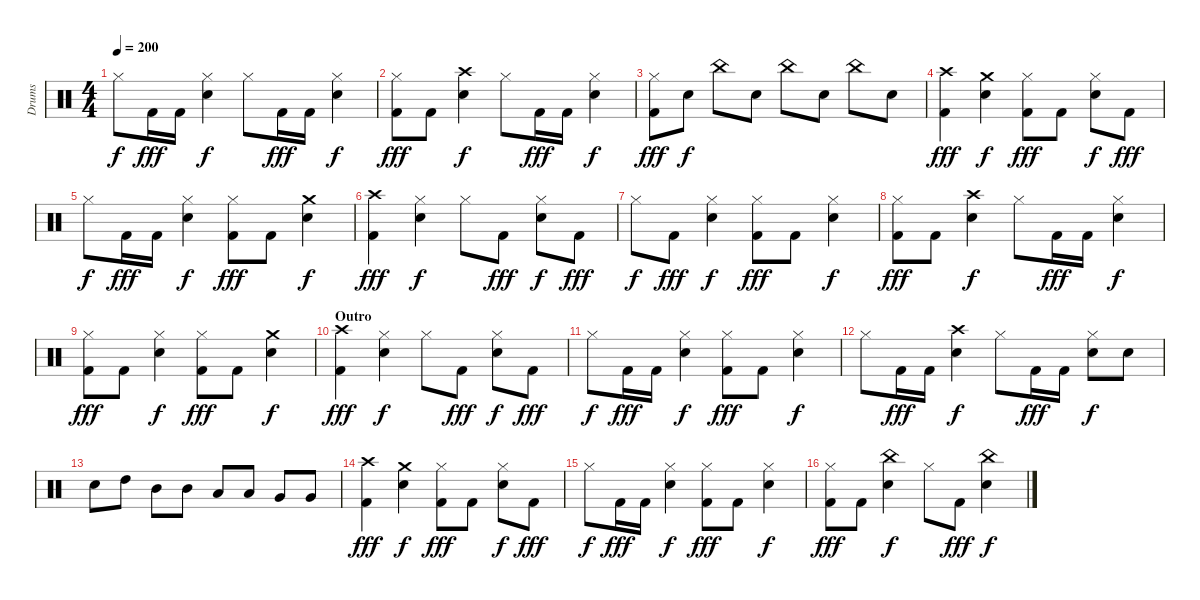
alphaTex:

\track ("Drums" "Drums") {instrument percussion}
\staff {score}
\articulation defaults
\ts (4 4)
\tempo 200
\clef neutral
\ks c "Hi-Hat (closed)".8{dy f} "Kick (hit) 2".16{dy fff} "Kick (hit) 2".16
("Hi-Hat (closed)" "Snare (hit) 2").4{dy f} "Hi-Hat (closed)".8 "Kick (hit) 2".16{dy fff} "Kick (hit) 2".16 ("Hi-Hat (closed)" "Snare (hit) 2").4{dy f} |
("Hi-Hat (closed)" "Kick (hit) 2").8{dy fff} "Kick (hit) 2".8 ("Crash high (hit)" "Snare (hit) 2").4{dy f} "Hi-Hat (closed)".8 "Kick (hit) 2".16{dy fff} "Kick (hit) 2".16 ("Hi-Hat (closed)" "Snare (hit) 2").4{dy f} |
("Hi-Hat (closed)" "Kick (hit) 2").8{dy fff} "Snare (hit) 2".8{dy f} "China (hit)".8 "Snare (hit) 2".8 "China (hit)".8 "Snare (hit) 2".8 "China (hit)".8 "Snare (hit) 2".8 |
("Crash high (hit)" "Kick (hit) 2").4{dy fff} ("Crash medium (hit)" "Snare (hit) 2").4{dy f} ("Hi-Hat (closed)" "Kick (hit) 2").8{dy fff} "Kick (hit) 2".8 ("Hi-Hat (closed)" "Snare (hit) 2").8{dy f} "Kick (hit) 2".8{dy fff} |
"Hi-Hat (closed)".8{dy f} "Kick (hit) 2".16{dy fff} "Kick (hit) 2".16 ("Hi-Hat (closed)" "Snare (hit) 2").4{dy f} ("Hi-Hat (closed)" "Kick (hit) 2").8{dy fff} "Kick (hit) 2".8 ("Crash medium (hit)" "Snare (hit) 2").4{dy f} |
("Crash high (hit)" "Kick (hit) 2").4{dy fff} ("Hi-Hat (closed)" "Snare (hit) 2").4{dy f} "Hi-Hat (closed)".8 "Kick (hit) 2".8{dy fff} ("Hi-Hat (closed)" "Snare (hit) 2").8{dy f} "Kick (hit) 2".8{dy fff} |
"Hi-Hat (closed)".8{dy f} "Kick (hit) 2".8{dy fff} ("Hi-Hat (closed)" "Snare (hit) 2").4{dy f} ("Hi-Hat (closed)" "Kick (hit) 2").8{dy fff} "Kick (hit) 2".8 ("Hi-Hat (closed)" "Snare (hit) 2").4{dy f} |
("Hi-Hat (closed)" "Kick (hit) 2").8{dy fff} "Kick (hit) 2".8 ("Crash high (hit)" "Snare (hit) 2").4{dy f} "Hi-Hat (closed)".8 "Kick (hit) 2".16{dy fff} "Kick (hit) 2".16 ("Hi-Hat (closed)" "Snare (hit) 2").4{dy f} |
("Hi-Hat (closed)" "Kick (hit) 2").8{dy fff} "Kick (hit) 2".8 ("Hi-Hat (closed)" "Snare (hit) 2").4{dy f} ("Hi-Hat (closed)" "Kick (hit) 2").8{dy fff} "Kick (hit) 2".8 ("Crash medium (hit)" "Snare (hit) 2").4{dy f} |
\section ("" "Outro")
("Crash high (hit)" "Kick (hit) 2").4{dy fff} ("Hi-Hat (closed)" "Snare (hit) 2").4{dy f} "Hi-Hat (closed)".8 "Kick (hit) 2".8{dy fff} ("Hi-Hat (closed)" "Snare (hit) 2").8{dy f} "Kick (hit) 2".8{dy fff} |
"Hi-Hat (closed)".8{dy f} "Kick (hit) 2".16{dy fff} "Kick (hit) 2".16 ("Hi-Hat (closed)" "Snare (hit) 2").4{dy f} ("Hi-Hat (closed)" "Kick (hit) 2").8{dy fff} "Kick (hit) 2".8 ("Hi-Hat (closed)" "Snare (hit) 2").4{dy f} |
"Hi-Hat (closed)".8 "Kick (hit) 2".16{dy fff} "Kick (hit) 2".16 ("Crash high (hit)" "Snare (hit) 2").4{dy f} "Hi-Hat (closed)".8 "Kick (hit) 2".16{dy fff} "Kick (hit) 2".16 ("Hi-Hat (closed)" "Snare (hit) 2").8{dy f} "Snare (hit) 2".8 |
"Snare (hit) 2".8 "High Tom (hit)".8 "Mid Tom (hit)".8 "Mid Tom (hit)".8 "Low Tom (hit)".8 "Low Tom (hit)".8 "Very Low Tom (hit)".8 "Very Low Tom (hit)".8 |
("Crash high (hit)" "Kick (hit) 2").4{dy fff} ("Crash medium (hit)" "Snare (hit) 2").4{dy f} ("Hi-Hat (closed)" "Kick (hit) 2").8{dy fff} "Kick (hit) 2".8 ("Hi-Hat (closed)" "Snare (hit) 2").8{dy f} "Kick (hit) 2".8{dy fff} |
"Hi-Hat (closed)".8{dy f} "Kick (hit) 2".16{dy fff} "Kick (hit) 2".16 ("Hi-Hat (closed)" "Snare (hit) 2").4{dy f} ("Hi-Hat (closed)" "Kick (hit) 2").8{dy fff} "Kick (hit) 2".8 ("Hi-Hat (closed)" "Snare (hit) 2").4{dy f} |
("Hi-Hat (closed)" "Kick (hit) 2").8{dy fff} "Kick (hit) 2".8 ("China (hit)" "Snare (hit) 2").4{dy f} "Hi-Hat (closed)".8 "Kick (hit) 2".8{dy fff} ("China (hit)" "Snare (hit) 2").4{dy f}
